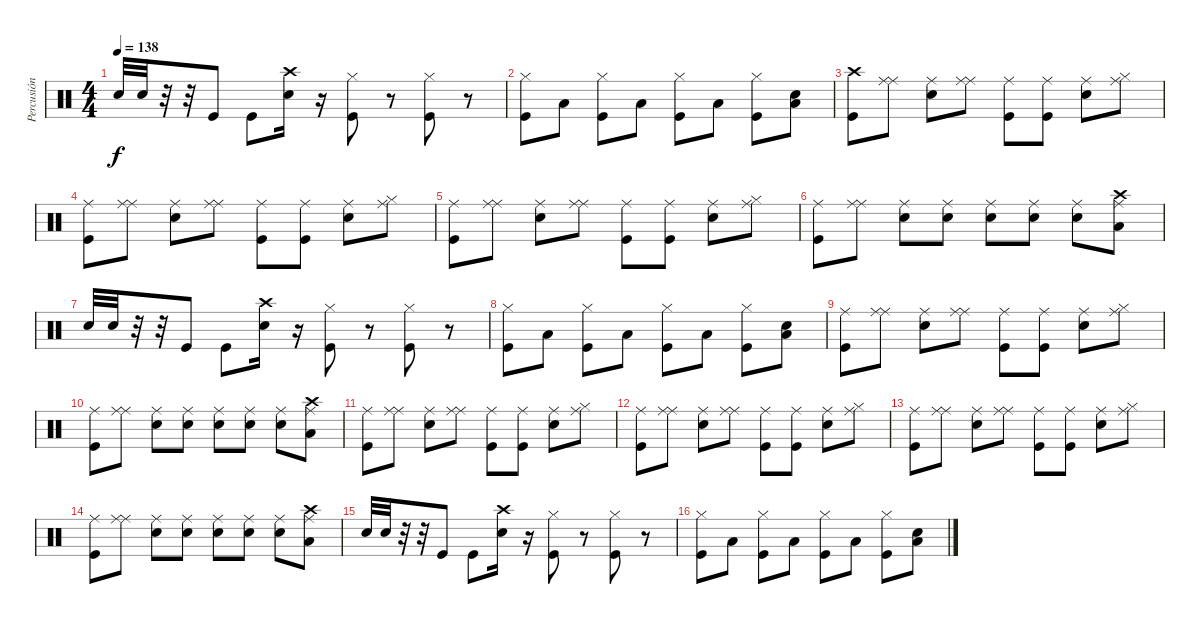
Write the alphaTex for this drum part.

\track ("Percusión" "Percusión") {instrument percussion}
\staff {score}
\articulation defaults
\ts (4 4)
\tempo 138
\clef neutral
\ks c "Snare (hit) 2".32{dy f} "Snare (hit) 2".32
r.32 r.32 "Kick (hit)".8 "Kick (hit)".8 ("Crash high (hit)" "Snare (hit) 2").16 r.16 ("Hi-Hat (closed)" "Kick (hit)").8 r.8 ("Hi-Hat (closed)" "Kick (hit)").8 r.8 |
("Hi-Hat (closed)" "Kick (hit)").8 "Low Tom (hit)".8 ("Hi-Hat (closed)" "Kick (hit)").8 "Low Floor Tom (hit)".8 ("Hi-Hat (closed)" "Kick (hit)").8 "Low Floor Tom (hit)".8 ("Hi-Hat (closed)" "Kick (hit)").8 ("Low Floor Tom (hit)" "Snare (hit) 2").8 |
("Crash high (hit)" "Kick (hit)").8 ("Ride (middle)" "Ride (middle)").8 ("Ride (middle)" "Snare (hit) 2").8 ("Ride (middle)" "Ride (middle)").8 ("Ride (middle)" "Kick (hit)").8 ("Ride (middle)" "Kick (hit)").8 ("Ride (middle)" "Snare (hit) 2").8 ("Ride (middle)" "Hi-Hat (closed)").8 |
("Ride (middle)" "Kick (hit)").8 ("Ride (middle)" "Ride (middle)").8 ("Ride (middle)" "Snare (hit) 2").8 ("Ride (middle)" "Ride (middle)").8 ("Ride (middle)" "Kick (hit)").8 ("Ride (middle)" "Kick (hit)").8 ("Ride (middle)" "Snare (hit) 2").8 ("Ride (middle)" "Hi-Hat (closed)").8 |
("Ride (middle)" "Kick (hit)").8 ("Ride (middle)" "Ride (middle)").8 ("Ride (middle)" "Snare (hit) 2").8 ("Ride (middle)" "Ride (middle)").8 ("Ride (middle)" "Kick (hit)").8 ("Ride (middle)" "Kick (hit)").8 ("Ride (middle)" "Snare (hit) 2").8 ("Ride (middle)" "Hi-Hat (closed)").8 |
("Ride (middle)" "Kick (hit)").8 ("Ride (middle)" "Ride (middle)").8 ("Ride (middle)" "Snare (hit) 2").8 ("Ride (middle)" "Snare (hit) 2").8 ("Ride (middle)" "Snare (hit) 2").8 ("Ride (middle)" "Snare (hit) 2").8 ("Ride (middle)" "Snare (hit) 2").8 ("Ride (middle)" "Low Tom (hit)" "Crash high (hit)").8 |
"Snare (hit) 2".32 "Snare (hit) 2".32 r.32 r.32 "Kick (hit)".8 "Kick (hit)".8 ("Crash high (hit)" "Snare (hit) 2").16 r.16 ("Hi-Hat (closed)" "Kick (hit)").8 r.8 ("Hi-Hat (closed)" "Kick (hit)").8 r.8 |
("Hi-Hat (closed)" "Kick (hit)").8 "Low Tom (hit)".8 ("Hi-Hat (closed)" "Kick (hit)").8 "Low Floor Tom (hit)".8 ("Hi-Hat (closed)" "Kick (hit)").8 "Low Floor Tom (hit)".8 ("Hi-Hat (closed)" "Kick (hit)").8 ("Low Floor Tom (hit)" "Snare (hit) 2").8 |
("Ride (middle)" "Kick (hit)").8 ("Ride (middle)" "Ride (middle)").8 ("Ride (middle)" "Snare (hit) 2").8 ("Ride (middle)" "Ride (middle)").8 ("Ride (middle)" "Kick (hit)").8 ("Ride (middle)" "Kick (hit)").8 ("Ride (middle)" "Snare (hit) 2").8 ("Ride (middle)" "Hi-Hat (closed)").8 |
("Ride (middle)" "Kick (hit)").8 ("Ride (middle)" "Ride (middle)").8 ("Ride (middle)" "Snare (hit) 2").8 ("Ride (middle)" "Snare (hit) 2").8 ("Ride (middle)" "Snare (hit) 2").8 ("Ride (middle)" "Snare (hit) 2").8 ("Ride (middle)" "Snare (hit) 2").8 ("Ride (middle)" "Low Tom (hit)" "Crash high (hit)").8 |
("Ride (middle)" "Kick (hit)").8 ("Ride (middle)" "Ride (middle)").8 ("Ride (middle)" "Snare (hit) 2").8 ("Ride (middle)" "Ride (middle)").8 ("Ride (middle)" "Kick (hit)").8 ("Ride (middle)" "Kick (hit)").8 ("Ride (middle)" "Snare (hit) 2").8 ("Ride (middle)" "Hi-Hat (closed)").8 |
("Ride (middle)" "Kick (hit)").8 ("Ride (middle)" "Ride (middle)").8 ("Ride (middle)" "Snare (hit) 2").8 ("Ride (middle)" "Ride (middle)").8 ("Ride (middle)" "Kick (hit)").8 ("Ride (middle)" "Kick (hit)").8 ("Ride (middle)" "Snare (hit) 2").8 ("Ride (middle)" "Hi-Hat (closed)").8 |
("Ride (middle)" "Kick (hit)").8 ("Ride (middle)" "Ride (middle)").8 ("Ride (middle)" "Snare (hit) 2").8 ("Ride (middle)" "Ride (middle)").8 ("Ride (middle)" "Kick (hit)").8 ("Ride (middle)" "Kick (hit)").8 ("Ride (middle)" "Snare (hit) 2").8 ("Ride (middle)" "Hi-Hat (closed)").8 |
("Ride (middle)" "Kick (hit)").8 ("Ride (middle)" "Ride (middle)").8 ("Ride (middle)" "Snare (hit) 2").8 ("Ride (middle)" "Snare (hit) 2").8 ("Ride (middle)" "Snare (hit) 2").8 ("Ride (middle)" "Snare (hit) 2").8 ("Ride (middle)" "Snare (hit) 2").8 ("Ride (middle)" "Low Tom (hit)" "Crash high (hit)").8 |
"Snare (hit) 2".32 "Snare (hit) 2".32 r.32 r.32 "Kick (hit)".8 "Kick (hit)".8 ("Crash high (hit)" "Snare (hit) 2").16 r.16 ("Hi-Hat (closed)" "Kick (hit)").8 r.8 ("Hi-Hat (closed)" "Kick (hit)").8 r.8 |
("Hi-Hat (closed)" "Kick (hit)").8 "Low Tom (hit)".8 ("Hi-Hat (closed)" "Kick (hit)").8 "Low Floor Tom (hit)".8 ("Hi-Hat (closed)" "Kick (hit)").8 "Low Floor Tom (hit)".8 ("Hi-Hat (closed)" "Kick (hit)").8 ("Low Floor Tom (hit)" "Snare (hit) 2").8
